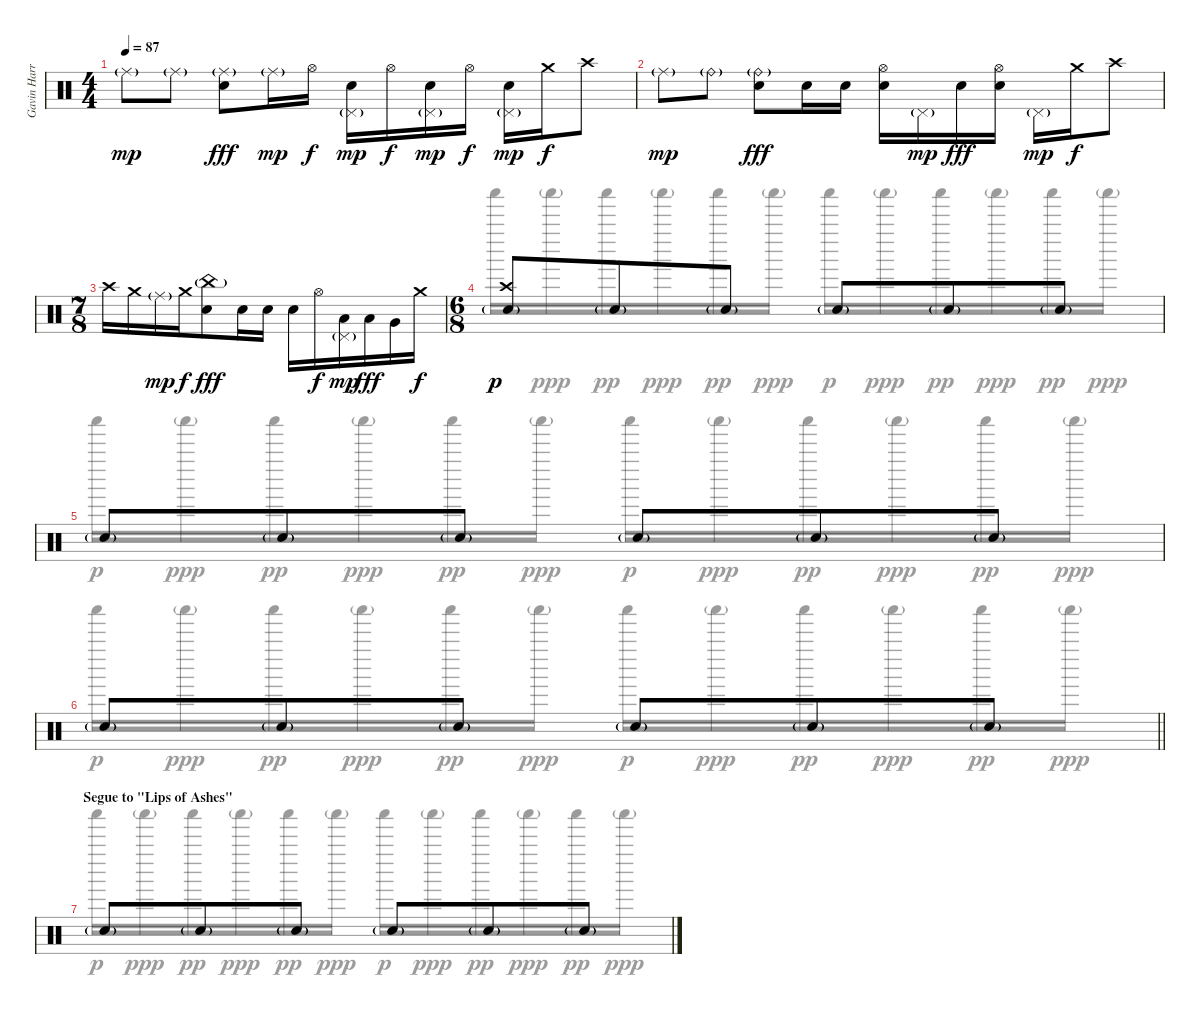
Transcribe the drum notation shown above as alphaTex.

\track ("Gavin Harrison Drums" "Gavin Harr") {instrument percussion}
\staff {score}
\articulation defaults
\voice
\ts (4 4)
\tempo 87
\clef neutral
\ks aminor "Ride (middle)"{g}.8{dy mp} "Ride (middle)"{g}.8
("Ride (middle)"{g} "Electric Snare (hit)").8{dy fff} "Ride (middle)"{g}.16{dy mp} "Hi-Hat (open)".16{dy f} ("Electric Snare (hit)" "Pedal Hi-Hat (hit)"{g}).16{dy mp} "Hi-Hat (open)".16{dy f} ("Electric Snare (hit)" "Pedal Hi-Hat (hit)"{g}).16{dy mp} "Hi-Hat (open)".16{dy f} ("Electric Snare (hit)" "Pedal Hi-Hat (hit)"{g}).16{dy mp} "Crash medium (hit)".16{dy f} "Crash high (hit)".8 |
"Ride (middle)"{g}.8{dy mp} "Ride (bell)"{g}.8 ("Ride (bell)"{g} "Electric Snare (hit)").8{dy fff} "Electric Snare (hit)".16 "Electric Snare (hit)".16 ("Hi-Hat (open)" "Electric Snare (hit)").16 "Pedal Hi-Hat (hit)"{g}.16{dy mp} "Electric Snare (hit)".16{dy fff} ("Hi-Hat (open)" "Electric Snare (hit)").16 "Pedal Hi-Hat (hit)"{g}.16{dy mp} "Crash medium (hit)".16{dy f} "Crash high (hit)".8 |
\ts (7 8)
"Crash high (hit)".16 "Crash medium (hit)".16 "Ride (middle)"{g}.16{dy mp} "Crash medium (hit)".16{dy f} ("China (hit)"{g} "Electric Snare (hit)").8{dy fff} "Electric Snare (hit)".16 "Electric Snare (hit)".16 "Electric Snare (hit)".16 "Hi-Hat (open)".16{dy f} ("Low Tom (hit)" "Pedal Hi-Hat (hit)"{g}).16{dy mp} "Low Tom (hit)".16{dy fff} "Very Low Tom (hit)".16 "Crash medium (hit)".16{dy f} |
\ts (6 8)
("Crash high (hit)" "Hand Clap (hit)"{g}).8{dy p} "Hand Clap (hit)"{g}.8 "Hand Clap (hit)"{g}.8 "Hand Clap (hit)"{g}.8 "Hand Clap (hit)"{g}.8 "Hand Clap (hit)"{g}.8 |
"Hand Clap (hit)"{g}.8 "Hand Clap (hit)"{g}.8 "Hand Clap (hit)"{g}.8 "Hand Clap (hit)"{g}.8 "Hand Clap (hit)"{g}.8 "Hand Clap (hit)"{g}.8 |
\barLineRight lightlight "Hand Clap (hit)"{g}.8{volume 0} "Hand Clap (hit)"{g}.8 "Hand Clap (hit)"{g}.8 "Hand Clap (hit)"{g}.8 "Hand Clap (hit)"{g}.8 "Hand Clap (hit)"{g}.8
|
\section ("" "Segue to \"Lips of Ashes\"")
"Hand Clap (hit)"{g}.8 "Hand Clap (hit)"{g}.8 "Hand Clap (hit)"{g}.8 "Hand Clap (hit)"{g}.8 "Hand Clap (hit)"{g}.8 "Hand Clap (hit)"{g}.8
\voice
\clef neutral
\ottava regular
\simile none
\ks aminor
|
|
|
"Shaker (hit)".16{dy p} "Shaker (hit)"{g}.16{dy ppp} "Shaker (hit)".16{dy pp} "Shaker (hit)"{g}.16{dy ppp} "Shaker (hit)".16{dy pp} "Shaker (hit)"{g}.16{dy ppp} "Shaker (hit)".16{dy p} "Shaker (hit)"{g}.16{dy ppp} "Shaker (hit)".16{dy pp} "Shaker (hit)"{g}.16{dy ppp} "Shaker (hit)".16{dy pp} "Shaker (hit)"{g}.16{dy ppp} |
"Shaker (hit)".16{dy p} "Shaker (hit)"{g}.16{dy ppp} "Shaker (hit)".16{dy pp} "Shaker (hit)"{g}.16{dy ppp} "Shaker (hit)".16{dy pp} "Shaker (hit)"{g}.16{dy ppp} "Shaker (hit)".16{dy p} "Shaker (hit)"{g}.16{dy ppp} "Shaker (hit)".16{dy pp} "Shaker (hit)"{g}.16{dy ppp} "Shaker (hit)".16{dy pp} "Shaker (hit)"{g}.16{dy ppp} |
\barLineRight lightlight "Shaker (hit)".16{dy p} "Shaker (hit)"{g}.16{dy ppp} "Shaker (hit)".16{dy pp} "Shaker (hit)"{g}.16{dy ppp} "Shaker (hit)".16{dy pp} "Shaker (hit)"{g}.16{dy ppp} "Shaker (hit)".16{dy p} "Shaker (hit)"{g}.16{dy ppp} "Shaker (hit)".16{dy pp} "Shaker (hit)"{g}.16{dy ppp} "Shaker (hit)".16{dy pp} "Shaker (hit)"{g}.16{dy ppp}
|
"Shaker (hit)".16{dy p} "Shaker (hit)"{g}.16{dy ppp} "Shaker (hit)".16{dy pp} "Shaker (hit)"{g}.16{dy ppp} "Shaker (hit)".16{dy pp} "Shaker (hit)"{g}.16{dy ppp} "Shaker (hit)".16{dy p} "Shaker (hit)"{g}.16{dy ppp} "Shaker (hit)".16{dy pp} "Shaker (hit)"{g}.16{dy ppp} "Shaker (hit)".16{dy pp} "Shaker (hit)"{g}.16{dy ppp}
